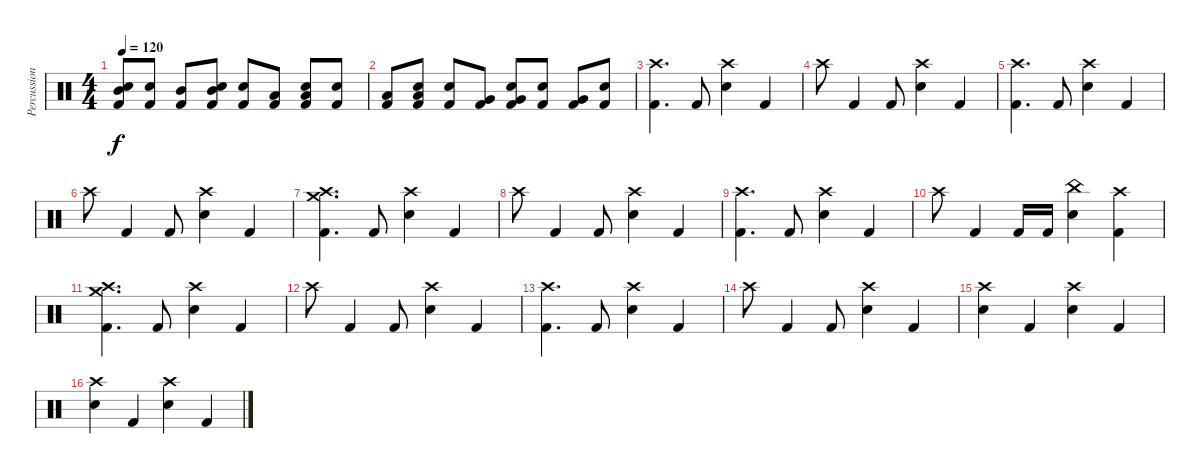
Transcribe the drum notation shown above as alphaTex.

\track ("Percussion" "Percussion") {instrument percussion}
\staff {score}
\articulation defaults
\ts (4 4)
\tempo 120
\clef neutral
\ks c
("Mid Tom (hit)" "Electric Snare (hit)" "Kick (hit) 2").8{dy f} ("Electric Snare (hit)" "Kick (hit) 2").8 ("Mid Tom (hit)" "Kick (hit) 2").8 ("Mid Tom (hit)" "Electric Snare (hit)" "Kick (hit) 2").8 ("Electric Snare (hit)" "Kick (hit) 2").8 ("Low Tom (hit)" "Kick (hit) 2").8 ("Low Tom (hit)" "Electric Snare (hit)" "Kick (hit) 2").8 ("Electric Snare (hit)" "Kick (hit) 2").8 |
("Low Tom (hit)" "Kick (hit) 2").8 ("Low Tom (hit)" "Electric Snare (hit)" "Kick (hit) 2").8 ("Electric Snare (hit)" "Kick (hit) 2").8 ("Very Low Tom (hit)" "Kick (hit) 2").8 ("Very Low Tom (hit)" "Electric Snare (hit)" "Kick (hit) 2").8 ("Electric Snare (hit)" "Kick (hit) 2").8 ("Very Low Tom (hit)" "Kick (hit) 2").8 ("Electric Snare (hit)" "Kick (hit) 2").8 |
("Crash high (hit)" "Kick (hit) 2").4{d} "Kick (hit) 2".8 ("Crash high (hit)" "Electric Snare (hit)").4 "Kick (hit) 2".4 |
"Crash high (hit)".8 "Kick (hit) 2".4 "Kick (hit) 2".8 ("Crash high (hit)" "Electric Snare (hit)").4 "Kick (hit) 2".4 |
("Crash high (hit)" "Kick (hit) 2").4{d} "Kick (hit) 2".8 ("Crash high (hit)" "Electric Snare (hit)").4 "Kick (hit) 2".4 |
"Crash high (hit)".8 "Kick (hit) 2".4 "Kick (hit) 2".8 ("Crash high (hit)" "Electric Snare (hit)").4 "Kick (hit) 2".4 |
("Crash high (hit)" "Crash medium (hit)" "Kick (hit) 2").4{d} "Kick (hit) 2".8 ("Crash high (hit)" "Electric Snare (hit)").4 "Kick (hit) 2".4 |
"Crash high (hit)".8 "Kick (hit) 2".4 "Kick (hit) 2".8 ("Crash high (hit)" "Electric Snare (hit)").4 "Kick (hit) 2".4 |
("Crash high (hit)" "Kick (hit) 2").4{d} "Kick (hit) 2".8 ("Crash high (hit)" "Electric Snare (hit)").4 "Kick (hit) 2".4 |
"Crash high (hit)".8 "Kick (hit) 2".4 "Kick (hit) 2".16 "Kick (hit) 2".16 ("China (hit)" "Electric Snare (hit)").4 ("Crash high (hit)" "Kick (hit) 2").4 |
("Crash high (hit)" "Crash medium (hit)" "Kick (hit) 2").4{d} "Kick (hit) 2".8 ("Crash high (hit)" "Electric Snare (hit)").4 "Kick (hit) 2".4 |
"Crash high (hit)".8 "Kick (hit) 2".4 "Kick (hit) 2".8 ("Crash high (hit)" "Electric Snare (hit)").4 "Kick (hit) 2".4 |
("Crash high (hit)" "Kick (hit) 2").4{d} "Kick (hit) 2".8 ("Crash high (hit)" "Electric Snare (hit)").4 "Kick (hit) 2".4 |
"Crash high (hit)".8 "Kick (hit) 2".4 "Kick (hit) 2".8 ("Crash high (hit)" "Electric Snare (hit)").4 "Kick (hit) 2".4 |
("Crash high (hit)" "Electric Snare (hit)").4 "Kick (hit) 2".4 ("Crash high (hit)" "Electric Snare (hit)").4 "Kick (hit) 2".4 |
("Crash high (hit)" "Electric Snare (hit)").4 "Kick (hit) 2".4 ("Crash high (hit)" "Electric Snare (hit)").4 "Kick (hit) 2".4
